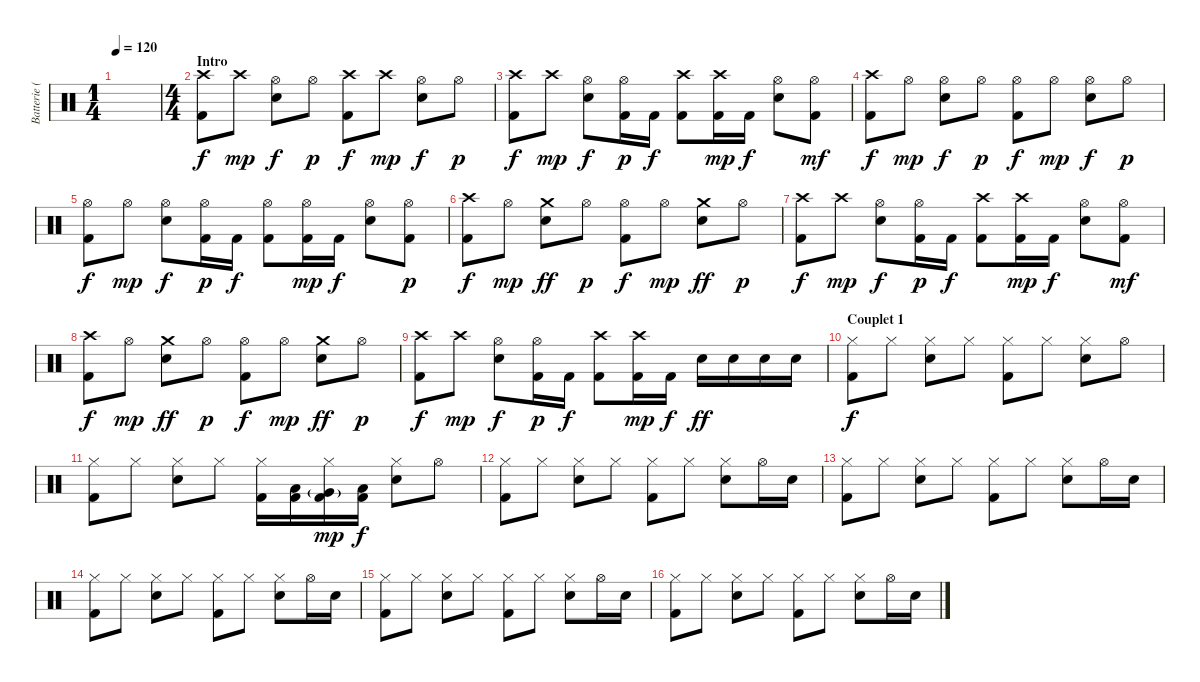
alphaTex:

\track ("Batterie (Racci \"Sketchy\" Shay)" "Batterie (") {instrument percussion}
\staff {score}
\articulation defaults
\ts (1 4)
\tempo 120
\clef neutral
\ks c
|
\ts (4 4)
\section ("" "Intro")
("Crash high (hit)" "Kick (hit) 2").8 "Crash high (hit)".8{dy mp} ("Hi-Hat (open)" "Electric Snare (hit)").8{dy f} "Hi-Hat (open)".8{dy p} ("Crash high (hit)" "Kick (hit) 2").8{dy f} "Crash high (hit)".8{dy mp} ("Hi-Hat (open)" "Electric Snare (hit)").8{dy f} "Hi-Hat (open)".8{dy p} |
("Crash high (hit)" "Kick (hit) 2").8{dy f} "Crash high (hit)".8{dy mp} ("Hi-Hat (open)" "Electric Snare (hit)").8{dy f} ("Hi-Hat (open)" "Kick (hit) 2").16{dy p} "Kick (hit) 2".16{dy f} ("Crash high (hit)" "Kick (hit) 2").8 ("Crash high (hit)" "Kick (hit) 2").16{dy mp} "Kick (hit) 2".16{dy f} ("Hi-Hat (open)" "Electric Snare (hit)").8 ("Hi-Hat (open)" "Kick (hit) 2").8{dy mf} |
("Crash high (hit)" "Kick (hit) 2").8{dy f} "Hi-Hat (open)".8{dy mp} ("Hi-Hat (open)" "Electric Snare (hit)").8{dy f} "Hi-Hat (open)".8{dy p} ("Hi-Hat (open)" "Kick (hit) 2").8{dy f} "Hi-Hat (open)".8{dy mp} ("Hi-Hat (open)" "Electric Snare (hit)").8{dy f} "Hi-Hat (open)".8{dy p} |
("Hi-Hat (open)" "Kick (hit) 2").8{dy f} "Hi-Hat (open)".8{dy mp} ("Hi-Hat (open)" "Electric Snare (hit)").8{dy f} ("Hi-Hat (open)" "Kick (hit) 2").16{dy p} "Kick (hit) 2".16{dy f} ("Hi-Hat (open)" "Kick (hit) 2").8 ("Hi-Hat (open)" "Kick (hit) 2").16{dy mp} "Kick (hit) 2".16{dy f} ("Hi-Hat (open)" "Electric Snare (hit)").8 ("Hi-Hat (open)" "Kick (hit) 2").8{dy p} |
("Crash high (hit)" "Kick (hit) 2").8{dy f} "Hi-Hat (open)".8{dy mp} ("Crash medium (hit)" "Electric Snare (hit)").8{dy ff} "Hi-Hat (open)".8{dy p} ("Hi-Hat (open)" "Kick (hit) 2").8{dy f} "Hi-Hat (open)".8{dy mp} ("Crash medium (hit)" "Electric Snare (hit)").8{dy ff} "Hi-Hat (open)".8{dy p} |
("Crash high (hit)" "Kick (hit) 2").8{dy f} "Crash high (hit)".8{dy mp} ("Hi-Hat (open)" "Electric Snare (hit)").8{dy f} ("Hi-Hat (open)" "Kick (hit) 2").16{dy p} "Kick (hit) 2".16{dy f} ("Crash high (hit)" "Kick (hit) 2").8 ("Crash high (hit)" "Kick (hit) 2").16{dy mp} "Kick (hit) 2".16{dy f} ("Hi-Hat (open)" "Electric Snare (hit)").8 ("Hi-Hat (open)" "Kick (hit) 2").8{dy mf} |
("Crash high (hit)" "Kick (hit) 2").8{dy f} "Hi-Hat (open)".8{dy mp} ("Crash medium (hit)" "Snare (hit) 2").8{dy ff} "Hi-Hat (open)".8{dy p} ("Hi-Hat (open)" "Kick (hit) 2").8{dy f} "Hi-Hat (open)".8{dy mp} ("Crash medium (hit)" "Electric Snare (hit)").8{dy ff} "Hi-Hat (open)".8{dy p} |
("Crash high (hit)" "Kick (hit) 2").8{dy f} "Crash high (hit)".8{dy mp} ("Hi-Hat (open)" "Electric Snare (hit)").8{dy f} ("Hi-Hat (open)" "Kick (hit) 2").16{dy p} "Kick (hit) 2".16{dy f} ("Crash high (hit)" "Kick (hit) 2").8 ("Crash high (hit)" "Kick (hit) 2").16{dy mp} "Kick (hit) 2".16{dy f} "Electric Snare (hit)".16{dy ff} "Electric Snare (hit)".16 "Electric Snare (hit)".16 "Electric Snare (hit)".16 |
\section ("" "Couplet 1")
("Hi-Hat (closed)" "Kick (hit) 2").8{dy f} "Hi-Hat (closed)".8 ("Hi-Hat (closed)" "Electric Snare (hit)").8 "Hi-Hat (closed)".8 ("Hi-Hat (closed)" "Kick (hit) 2").8 "Hi-Hat (closed)".8 ("Hi-Hat (closed)" "Electric Snare (hit)").8 "Hi-Hat (open)".8 |
("Hi-Hat (closed)" "Kick (hit) 2").8 "Hi-Hat (closed)".8 ("Hi-Hat (closed)" "Electric Snare (hit)").8 "Hi-Hat (closed)".8 ("Hi-Hat (closed)" "Kick (hit) 2").16 ("Low Floor Tom (hit)" "Kick (hit) 2").16 ("Hi-Hat (closed)" "Very Low Tom (hit)"{g} "Kick (hit) 2").16{dy mp} ("Low Floor Tom (hit)" "Kick (hit) 2").16{dy f} ("Hi-Hat (closed)" "Electric Snare (hit)").8 "Hi-Hat (open)".8 |
("Hi-Hat (closed)" "Kick (hit) 2").8 "Hi-Hat (closed)".8 ("Hi-Hat (closed)" "Electric Snare (hit)").8 "Hi-Hat (closed)".8 ("Hi-Hat (closed)" "Kick (hit) 2").8 "Hi-Hat (closed)".8 ("Hi-Hat (closed)" "Electric Snare (hit)").8 "Hi-Hat (open)".16 "Electric Snare (hit)".16 |
("Hi-Hat (closed)" "Kick (hit) 2").8 "Hi-Hat (closed)".8 ("Hi-Hat (closed)" "Electric Snare (hit)").8 "Hi-Hat (closed)".8 ("Hi-Hat (closed)" "Kick (hit) 2").8 "Hi-Hat (closed)".8 ("Hi-Hat (closed)" "Electric Snare (hit)").8 "Hi-Hat (open)".16 "Electric Snare (hit)".16 |
("Hi-Hat (closed)" "Kick (hit) 2").8 "Hi-Hat (closed)".8 ("Hi-Hat (closed)" "Electric Snare (hit)").8 "Hi-Hat (closed)".8 ("Hi-Hat (closed)" "Kick (hit) 2").8 "Hi-Hat (closed)".8 ("Hi-Hat (closed)" "Electric Snare (hit)").8 "Hi-Hat (open)".16 "Electric Snare (hit)".16 |
("Hi-Hat (closed)" "Kick (hit) 2").8 "Hi-Hat (closed)".8 ("Hi-Hat (closed)" "Electric Snare (hit)").8 "Hi-Hat (closed)".8 ("Hi-Hat (closed)" "Kick (hit) 2").8 "Hi-Hat (closed)".8 ("Hi-Hat (closed)" "Electric Snare (hit)").8 "Hi-Hat (open)".16 "Electric Snare (hit)".16 |
("Hi-Hat (closed)" "Kick (hit) 2").8 "Hi-Hat (closed)".8 ("Hi-Hat (closed)" "Electric Snare (hit)").8 "Hi-Hat (closed)".8 ("Hi-Hat (closed)" "Kick (hit) 2").8 "Hi-Hat (closed)".8 ("Hi-Hat (closed)" "Electric Snare (hit)").8 "Hi-Hat (open)".16 "Electric Snare (hit)".16
